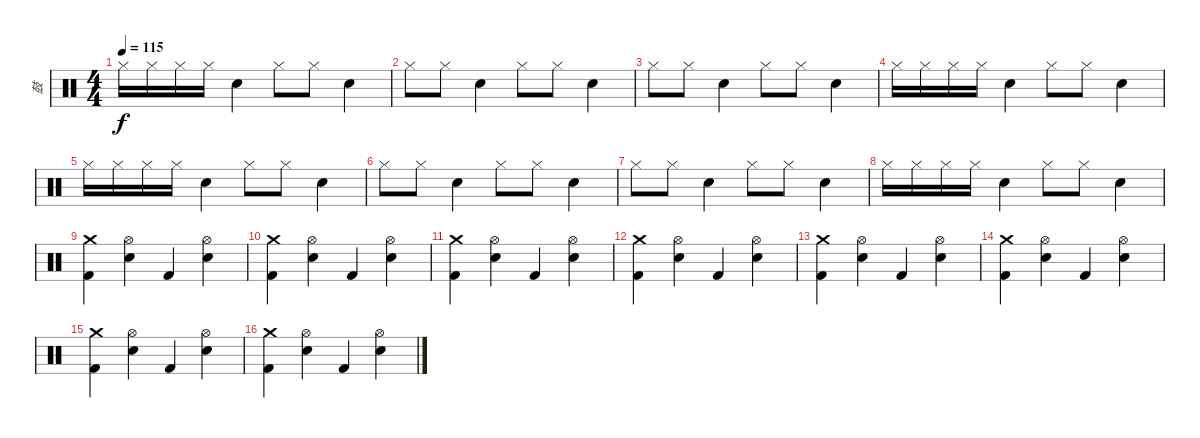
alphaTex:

\track ("鼓" "鼓") {instrument percussion}
\staff {score}
\articulation defaults
\ts (4 4)
\tempo 115
\clef neutral
\ks c "Hi-Hat (closed)".16{dy f} "Hi-Hat (closed)".16 "Hi-Hat (closed)".16 "Hi-Hat (closed)".16 "Snare (hit) 2".4 "Hi-Hat (closed)".8 "Hi-Hat (closed)".8 "Snare (hit) 2".4
|
"Hi-Hat (closed)".8 "Hi-Hat (closed)".8 "Snare (hit) 2".4 "Hi-Hat (closed)".8 "Hi-Hat (closed)".8 "Snare (hit) 2".4 |
"Hi-Hat (closed)".8 "Hi-Hat (closed)".8 "Snare (hit) 2".4 "Hi-Hat (closed)".8 "Hi-Hat (closed)".8 "Snare (hit) 2".4 |
"Hi-Hat (closed)".16 "Hi-Hat (closed)".16 "Hi-Hat (closed)".16 "Hi-Hat (closed)".16 "Snare (hit) 2".4 "Hi-Hat (closed)".8 "Hi-Hat (closed)".8 "Snare (hit) 2".4 |
"Hi-Hat (closed)".16 "Hi-Hat (closed)".16 "Hi-Hat (closed)".16 "Hi-Hat (closed)".16 "Snare (hit) 2".4 "Hi-Hat (closed)".8 "Hi-Hat (closed)".8 "Snare (hit) 2".4 |
"Hi-Hat (closed)".8 "Hi-Hat (closed)".8 "Snare (hit) 2".4 "Hi-Hat (closed)".8 "Hi-Hat (closed)".8 "Snare (hit) 2".4 |
"Hi-Hat (closed)".8 "Hi-Hat (closed)".8 "Snare (hit) 2".4 "Hi-Hat (closed)".8 "Hi-Hat (closed)".8 "Snare (hit) 2".4 |
"Hi-Hat (closed)".16 "Hi-Hat (closed)".16 "Hi-Hat (closed)".16 "Hi-Hat (closed)".16 "Snare (hit) 2".4 "Hi-Hat (closed)".8 "Hi-Hat (closed)".8 "Snare (hit) 2".4 |
("Kick (hit) 2" "Crash medium (hit)").4 ("Snare (hit) 2" "Hi-Hat (open)").4 "Kick (hit) 2".4 ("Snare (hit) 2" "Hi-Hat (open)").4 |
("Kick (hit) 2" "Crash medium (hit)").4 ("Snare (hit) 2" "Hi-Hat (open)").4 "Kick (hit) 2".4 ("Snare (hit) 2" "Hi-Hat (open)").4 |
("Kick (hit) 2" "Crash medium (hit)").4 ("Snare (hit) 2" "Hi-Hat (open)").4 "Kick (hit) 2".4 ("Snare (hit) 2" "Hi-Hat (open)").4 |
("Kick (hit) 2" "Crash medium (hit)").4 ("Snare (hit) 2" "Hi-Hat (open)").4 "Kick (hit) 2".4 ("Snare (hit) 2" "Hi-Hat (open)").4 |
("Kick (hit) 2" "Crash medium (hit)").4 ("Snare (hit) 2" "Hi-Hat (open)").4 "Kick (hit) 2".4 ("Snare (hit) 2" "Hi-Hat (open)").4 |
("Kick (hit) 2" "Crash medium (hit)").4 ("Snare (hit) 2" "Hi-Hat (open)").4 "Kick (hit) 2".4 ("Snare (hit) 2" "Hi-Hat (open)").4 |
("Kick (hit) 2" "Crash medium (hit)").4 ("Snare (hit) 2" "Hi-Hat (open)").4 "Kick (hit) 2".4 ("Snare (hit) 2" "Hi-Hat (open)").4 |
("Kick (hit) 2" "Crash medium (hit)").4 ("Snare (hit) 2" "Hi-Hat (open)").4 "Kick (hit) 2".4 ("Snare (hit) 2" "Hi-Hat (open)").4
